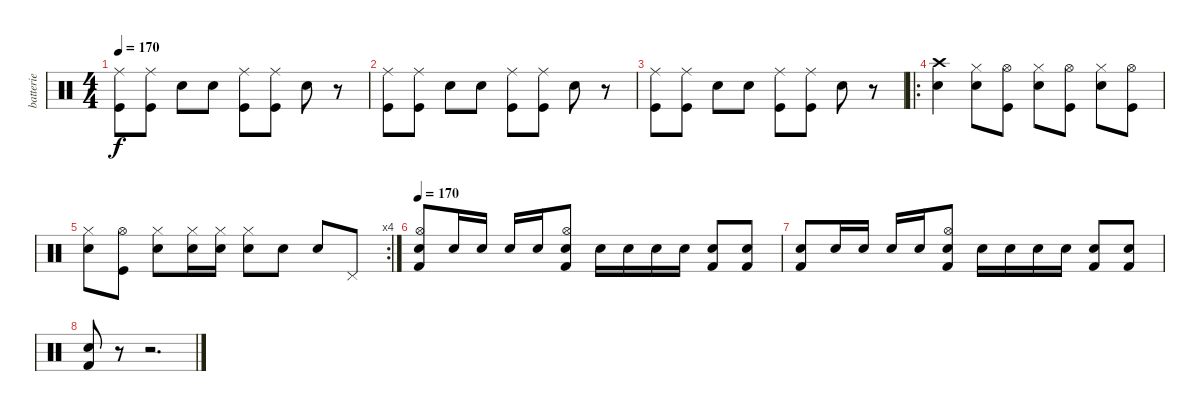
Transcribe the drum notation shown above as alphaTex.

\track ("batterie" "batterie") {instrument percussion}
\staff {score}
\articulation defaults
\ts (4 4)
\tempo 170
\clef neutral
\ks c
("Ride (middle)" "Kick (hit)").8{dy f} ("Ride (middle)" "Kick (hit)").8 "Electric Snare (hit)".8 "Electric Snare (hit)".8 ("Ride (middle)" "Kick (hit)").8 ("Ride (middle)" "Kick (hit)").8 "Electric Snare (hit)".8 r.8 |
("Ride (middle)" "Kick (hit)").8 ("Ride (middle)" "Kick (hit)").8 "Electric Snare (hit)".8 "Electric Snare (hit)".8 ("Ride (middle)" "Kick (hit)").8 ("Ride (middle)" "Kick (hit)").8 "Electric Snare (hit)".8 r.8 |
("Ride (middle)" "Kick (hit)").8 ("Ride (middle)" "Kick (hit)").8 "Electric Snare (hit)".8 "Electric Snare (hit)".8 ("Ride (middle)" "Kick (hit)").8 ("Ride (middle)" "Kick (hit)").8 "Electric Snare (hit)".8 r.8 |
\ro
("Crash high (hit)" "Electric Snare (hit)").4 ("Hi-Hat (closed)" "Electric Snare (hit)").8 ("Hi-Hat (open)" "Kick (hit)").8 ("Hi-Hat (closed)" "Electric Snare (hit)").8 ("Hi-Hat (open)" "Kick (hit)").8 ("Hi-Hat (closed)" "Electric Snare (hit)").8 ("Hi-Hat (open)" "Kick (hit)").8 |
\rc 4
("Hi-Hat (closed)" "Electric Snare (hit)").8 ("Hi-Hat (open)" "Kick (hit)").8 ("Hi-Hat (closed)" "Electric Snare (hit)").8 ("Hi-Hat (closed)" "Electric Snare (hit)").16 ("Hi-Hat (closed)" "Electric Snare (hit)").16 ("Hi-Hat (closed)" "Electric Snare (hit)").8 "Electric Snare (hit)".8 "Electric Snare (hit)".8 "Pedal Hi-Hat (hit)".8 |
\tempo 170
("Hi-Hat (open)" "Electric Snare (hit)" "Kick (hit) 2").8 "Electric Snare (hit)".16 "Electric Snare (hit)".16 "Electric Snare (hit)".16 "Electric Snare (hit)".16 ("Hi-Hat (open)" "Electric Snare (hit)" "Kick (hit) 2").8 "Electric Snare (hit)".16 "Electric Snare (hit)".16 "Electric Snare (hit)".16 "Electric Snare (hit)".16 ("Electric Snare (hit)" "Kick (hit) 2").8 ("Electric Snare (hit)" "Kick (hit) 2").8 |
("Electric Snare (hit)" "Kick (hit) 2").8 "Electric Snare (hit)".16 "Electric Snare (hit)".16 "Electric Snare (hit)".16 "Electric Snare (hit)".16 ("Hi-Hat (open)" "Electric Snare (hit)" "Kick (hit) 2").8 "Electric Snare (hit)".16 "Electric Snare (hit)".16 "Electric Snare (hit)".16 "Electric Snare (hit)".16 ("Electric Snare (hit)" "Kick (hit) 2").8 ("Electric Snare (hit)" "Kick (hit) 2").8 |
("Electric Snare (hit)" "Kick (hit) 2").8 r.8 r.2{d}
